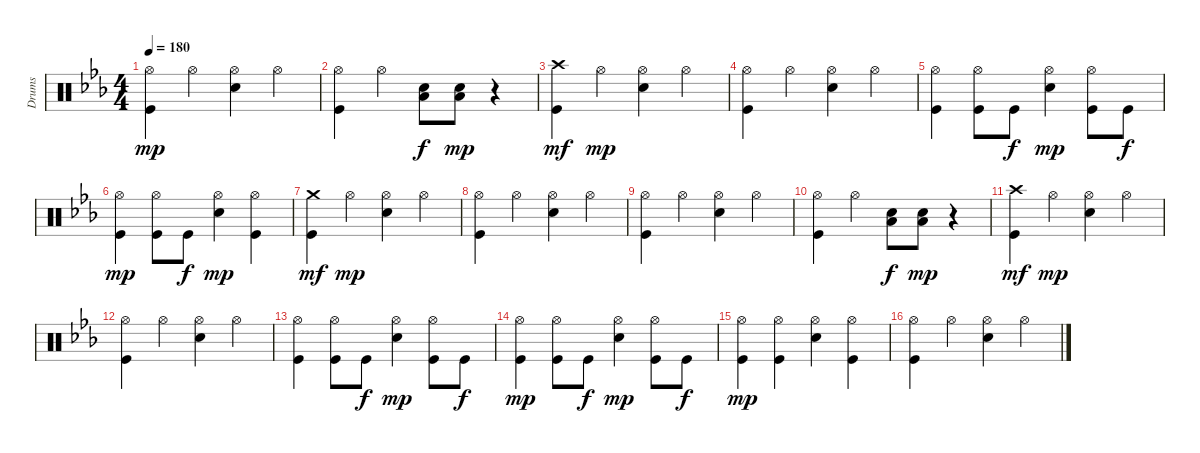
\track ("Drums" "Drums") {instrument percussion}
\staff {score}
\articulation defaults
\ts (4 4)
\tempo 180
\clef neutral
\ks eb
("Hi-Hat (open)" "Kick (hit)").4{dy mp} "Hi-Hat (open)".4 ("Hi-Hat (open)" "Snare (hit) 2").4 "Hi-Hat (open)".4 |
("Hi-Hat (open)" "Kick (hit)").4 "Hi-Hat (open)".4 ("Low Floor Tom (hit)" "Snare (hit) 2").8{dy f} ("Low Floor Tom (hit)" "Snare (hit) 2").8{dy mp} r.4 |
("Crash high (hit)" "Kick (hit)").4{dy mf} "Hi-Hat (open)".4{dy mp} ("Hi-Hat (open)" "Snare (hit) 2").4 "Hi-Hat (open)".4 |
("Hi-Hat (open)" "Kick (hit)").4 "Hi-Hat (open)".4 ("Hi-Hat (open)" "Snare (hit) 2").4 "Hi-Hat (open)".4 |
("Hi-Hat (open)" "Kick (hit)").4 ("Hi-Hat (open)" "Kick (hit)").8 "Kick (hit)".8{dy f} ("Hi-Hat (open)" "Snare (hit) 2").4{dy mp} ("Hi-Hat (open)" "Kick (hit)").8 "Kick (hit)".8{dy f} |
("Hi-Hat (open)" "Kick (hit)").4{dy mp} ("Hi-Hat (open)" "Kick (hit)").8 "Kick (hit)".8{dy f} ("Hi-Hat (open)" "Snare (hit) 2").4{dy mp} ("Hi-Hat (open)" "Kick (hit)").4 |
("Crash medium (hit)" "Kick (hit)").4{dy mf} "Hi-Hat (open)".4{dy mp} ("Hi-Hat (open)" "Snare (hit) 2").4 "Hi-Hat (open)".4 |
("Hi-Hat (open)" "Kick (hit)").4 "Hi-Hat (open)".4 ("Hi-Hat (open)" "Snare (hit) 2").4 "Hi-Hat (open)".4 |
("Hi-Hat (open)" "Kick (hit)").4 "Hi-Hat (open)".4 ("Hi-Hat (open)" "Snare (hit) 2").4 "Hi-Hat (open)".4 |
("Hi-Hat (open)" "Kick (hit)").4 "Hi-Hat (open)".4 ("Low Floor Tom (hit)" "Snare (hit) 2").8{dy f} ("Low Floor Tom (hit)" "Snare (hit) 2").8{dy mp} r.4 |
("Crash high (hit)" "Kick (hit)").4{dy mf} "Hi-Hat (open)".4{dy mp} ("Hi-Hat (open)" "Snare (hit) 2").4 "Hi-Hat (open)".4 |
("Hi-Hat (open)" "Kick (hit)").4 "Hi-Hat (open)".4 ("Hi-Hat (open)" "Snare (hit) 2").4 "Hi-Hat (open)".4 |
("Hi-Hat (open)" "Kick (hit)").4 ("Hi-Hat (open)" "Kick (hit)").8 "Kick (hit)".8{dy f} ("Hi-Hat (open)" "Snare (hit) 2").4{dy mp} ("Hi-Hat (open)" "Kick (hit)").8 "Kick (hit)".8{dy f} |
("Hi-Hat (open)" "Kick (hit)").4{dy mp} ("Hi-Hat (open)" "Kick (hit)").8 "Kick (hit)".8{dy f} ("Hi-Hat (open)" "Snare (hit) 2").4{dy mp} ("Hi-Hat (open)" "Kick (hit)").8 "Kick (hit)".8{dy f} |
("Hi-Hat (open)" "Kick (hit)").4{dy mp} ("Hi-Hat (open)" "Kick (hit)").4 ("Hi-Hat (open)" "Snare (hit) 2").4 ("Hi-Hat (open)" "Kick (hit)").4 |
("Hi-Hat (open)" "Kick (hit)").4 "Hi-Hat (open)".4 ("Hi-Hat (open)" "Snare (hit) 2").4 "Hi-Hat (open)".4
